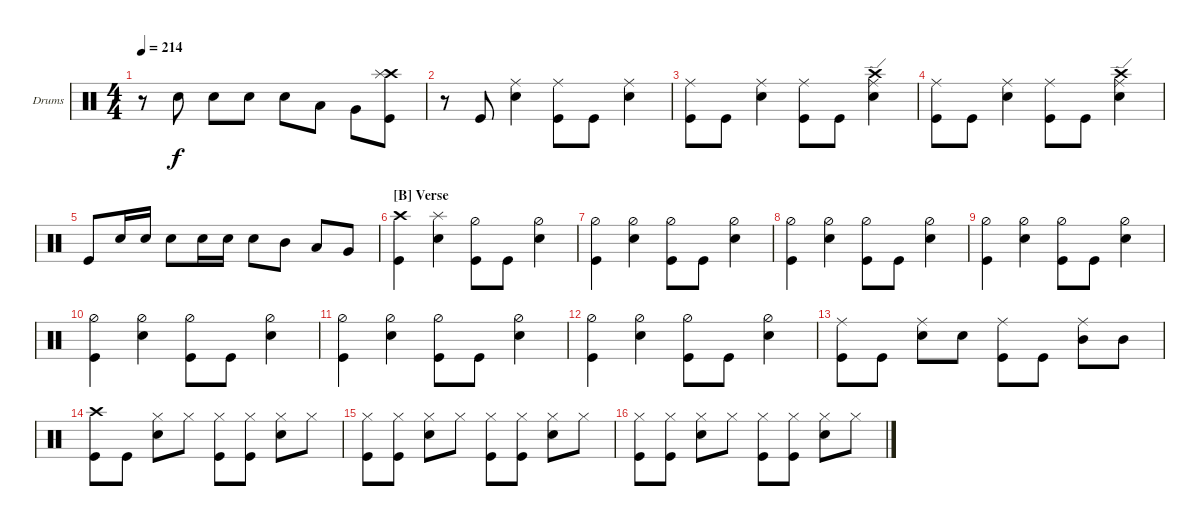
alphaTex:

\defaultSystemsLayout 4
\bracketExtendMode groupsimilarinstruments
\firstSystemTrackNameOrientation horizontal
\otherSystemsTrackNameOrientation horizontal
\track ("Brandon" "Drums") {instrument percussion}
\staff {score}
\articulation defaults
\ts (4 4)
\tempo 214
\clef neutral
\ks c
r.8{dy f} "Snare (hit) 2".8 "Snare (hit) 2".8 "Snare (hit) 2".8 "Snare (hit) 2".8 "Low Tom (hit)".8 "Very Low Tom (hit)".8 ("Kick (hit)" "Crash high (hit)" "Splash (hit)").8 |
r.8 "Kick (hit)".8 ("Snare (hit) 2" "Ride (middle)").4 ("Kick (hit)" "Ride (middle)").8 "Kick (hit)".8 ("Snare (hit) 2" "Ride (middle)").4 |
("Kick (hit)" "Ride (middle)").8 "Kick (hit)".8 ("Snare (hit) 2" "Ride (middle)").4 ("Kick (hit)" "Ride (middle)").8 "Kick (hit)".8 ("Snare (hit) 2" "Ride (edge)" "Crash high (hit)").4 |
("Kick (hit)" "Ride (middle)").8 "Kick (hit)".8 ("Snare (hit) 2" "Ride (middle)").4 ("Kick (hit)" "Ride (middle)").8 "Kick (hit)".8 ("Snare (hit) 2" "Ride (edge)" "Crash high (hit)").4 |
"Kick (hit)".8 "Snare (hit) 2".16 "Snare (hit) 2".16 "Snare (hit) 2".8 "Snare (hit) 2".16 "Snare (hit) 2".16 "Snare (hit) 2".8 "Mid Tom (hit)".8 "Low Tom (hit)".8 "Very Low Tom (hit)".8 |
\section ("B" "Verse")
("Kick (hit)" "Crash high (hit)").4 ("Snare (hit) 2" "Splash (hit)").4 ("Kick (hit)" "Hi-Hat (half)").8 "Kick (hit)".8 ("Snare (hit) 2" "Hi-Hat (half)").4 |
("Kick (hit)" "Hi-Hat (half)").4 ("Snare (hit) 2" "Hi-Hat (half)").4 ("Kick (hit)" "Hi-Hat (half)").8 "Kick (hit)".8 ("Snare (hit) 2" "Hi-Hat (half)").4 |
("Kick (hit)" "Hi-Hat (half)").4 ("Snare (hit) 2" "Hi-Hat (half)").4 ("Kick (hit)" "Hi-Hat (half)").8 "Kick (hit)".8 ("Snare (hit) 2" "Hi-Hat (half)").4 |
("Kick (hit)" "Hi-Hat (half)").4 ("Snare (hit) 2" "Hi-Hat (half)").4 ("Kick (hit)" "Hi-Hat (half)").8 "Kick (hit)".8 ("Snare (hit) 2" "Hi-Hat (half)").4 |
("Kick (hit)" "Hi-Hat (half)").4 ("Snare (hit) 2" "Hi-Hat (half)").4 ("Kick (hit)" "Hi-Hat (half)").8 "Kick (hit)".8 ("Snare (hit) 2" "Hi-Hat (half)").4 |
("Kick (hit)" "Hi-Hat (half)").4 ("Snare (hit) 2" "Hi-Hat (half)").4 ("Kick (hit)" "Hi-Hat (half)").8 "Kick (hit)".8 ("Snare (hit) 2" "Hi-Hat (half)").4 |
("Kick (hit)" "Hi-Hat (half)").4 ("Snare (hit) 2" "Hi-Hat (half)").4 ("Kick (hit)" "Hi-Hat (half)").8 "Kick (hit)".8 ("Snare (hit) 2" "Hi-Hat (half)").4 |
("Kick (hit)" "Ride (middle)").8 "Kick (hit)".8 ("Snare (hit) 2" "Ride (middle)").8 "Snare (hit) 2".8 ("Kick (hit)" "Ride (middle)").8 "Kick (hit)".8 ("Mid Tom (hit)" "Ride (middle)").8 "Mid Tom (hit)".8 |
("Kick (hit)" "Crash high (hit)").8 "Kick (hit)".8 ("Snare (hit) 2" "Hi-Hat (closed)").8 "Hi-Hat (closed)".8 ("Hi-Hat (closed)" "Kick (hit)").8 ("Hi-Hat (closed)" "Kick (hit)").8 ("Hi-Hat (closed)" "Snare (hit) 2").8 "Hi-Hat (closed)".8 |
("Hi-Hat (closed)" "Kick (hit)").8 ("Hi-Hat (closed)" "Kick (hit)").8 ("Hi-Hat (closed)" "Snare (hit) 2").8 "Hi-Hat (closed)".8 ("Hi-Hat (closed)" "Kick (hit)").8 ("Hi-Hat (closed)" "Kick (hit)").8 ("Hi-Hat (closed)" "Snare (hit) 2").8 "Hi-Hat (closed)".8 |
("Hi-Hat (closed)" "Kick (hit)").8 ("Hi-Hat (closed)" "Kick (hit)").8 ("Hi-Hat (closed)" "Snare (hit) 2").8 "Hi-Hat (closed)".8 ("Hi-Hat (closed)" "Kick (hit)").8 ("Hi-Hat (closed)" "Kick (hit)").8 ("Hi-Hat (closed)" "Snare (hit) 2").8 "Hi-Hat (closed)".8
